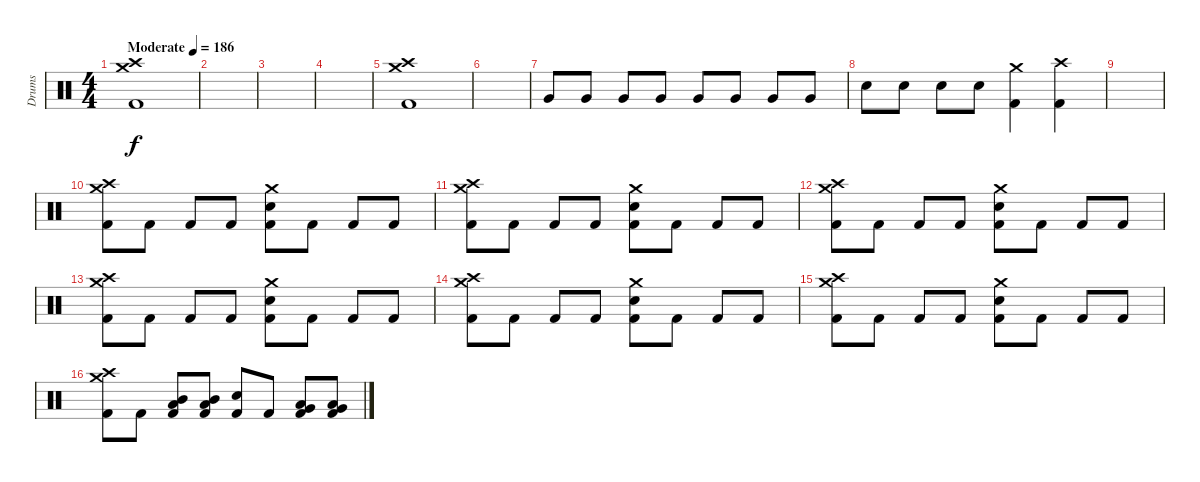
\track ("Drums" "Drums") {instrument percussion}
\staff {score}
\articulation defaults
\ts (4 4)
\tempo (186 "Moderate")
\clef neutral
\ks c
("Crash high (hit)" "Crash medium (hit)" "Kick (hit) 2").1{dy f} |
|
|
|
("Crash high (hit)" "Crash medium (hit)" "Kick (hit) 2").1 |
|
"Very Low Tom (hit)".8 "Very Low Tom (hit)".8 "Very Low Tom (hit)".8 "Very Low Tom (hit)".8 "Very Low Tom (hit)".8 "Very Low Tom (hit)".8 "Very Low Tom (hit)".8 "Very Low Tom (hit)".8 |
"Snare (hit) 2".8 "Snare (hit) 2".8 "Snare (hit) 2".8 "Snare (hit) 2".8 ("Crash medium (hit)" "Kick (hit) 2").4 ("Crash high (hit)" "Kick (hit) 2").4 |
|
("Crash high (hit)" "Crash medium (hit)" "Kick (hit) 2").8 "Kick (hit) 2".8 "Kick (hit) 2".8 "Kick (hit) 2".8 ("Crash medium (hit)" "Snare (hit) 2" "Kick (hit) 2").8 "Kick (hit) 2".8 "Kick (hit) 2".8 "Kick (hit) 2".8 |
("Crash high (hit)" "Crash medium (hit)" "Kick (hit) 2").8 "Kick (hit) 2".8 "Kick (hit) 2".8 "Kick (hit) 2".8 ("Crash medium (hit)" "Snare (hit) 2" "Kick (hit) 2").8 "Kick (hit) 2".8 "Kick (hit) 2".8 "Kick (hit) 2".8 |
("Crash high (hit)" "Crash medium (hit)" "Kick (hit) 2").8 "Kick (hit) 2".8 "Kick (hit) 2".8 "Kick (hit) 2".8 ("Crash medium (hit)" "Snare (hit) 2" "Kick (hit) 2").8 "Kick (hit) 2".8 "Kick (hit) 2".8 "Kick (hit) 2".8 |
("Crash high (hit)" "Crash medium (hit)" "Kick (hit) 2").8 "Kick (hit) 2".8 "Kick (hit) 2".8 "Kick (hit) 2".8 ("Crash medium (hit)" "Snare (hit) 2" "Kick (hit) 2").8 "Kick (hit) 2".8 "Kick (hit) 2".8 "Kick (hit) 2".8 |
("Crash high (hit)" "Crash medium (hit)" "Kick (hit) 2").8 "Kick (hit) 2".8 "Kick (hit) 2".8 "Kick (hit) 2".8 ("Crash medium (hit)" "Snare (hit) 2" "Kick (hit) 2").8 "Kick (hit) 2".8 "Kick (hit) 2".8 "Kick (hit) 2".8 |
("Crash high (hit)" "Crash medium (hit)" "Kick (hit) 2").8 "Kick (hit) 2".8 "Kick (hit) 2".8 "Kick (hit) 2".8 ("Crash medium (hit)" "Snare (hit) 2" "Kick (hit) 2").8 "Kick (hit) 2".8 "Kick (hit) 2".8 "Kick (hit) 2".8 |
("Crash high (hit)" "Crash medium (hit)" "Kick (hit) 2").8 "Kick (hit) 2".8 ("Mid Tom (hit)" "Low Tom (hit)" "Kick (hit) 2").8 ("Mid Tom (hit)" "Low Tom (hit)" "Kick (hit) 2").8 ("Snare (hit) 2" "Kick (hit) 2").8 "Kick (hit) 2".8 ("Low Tom (hit)" "Very Low Tom (hit)" "Kick (hit) 2").8 ("Low Tom (hit)" "Very Low Tom (hit)" "Kick (hit) 2").8
